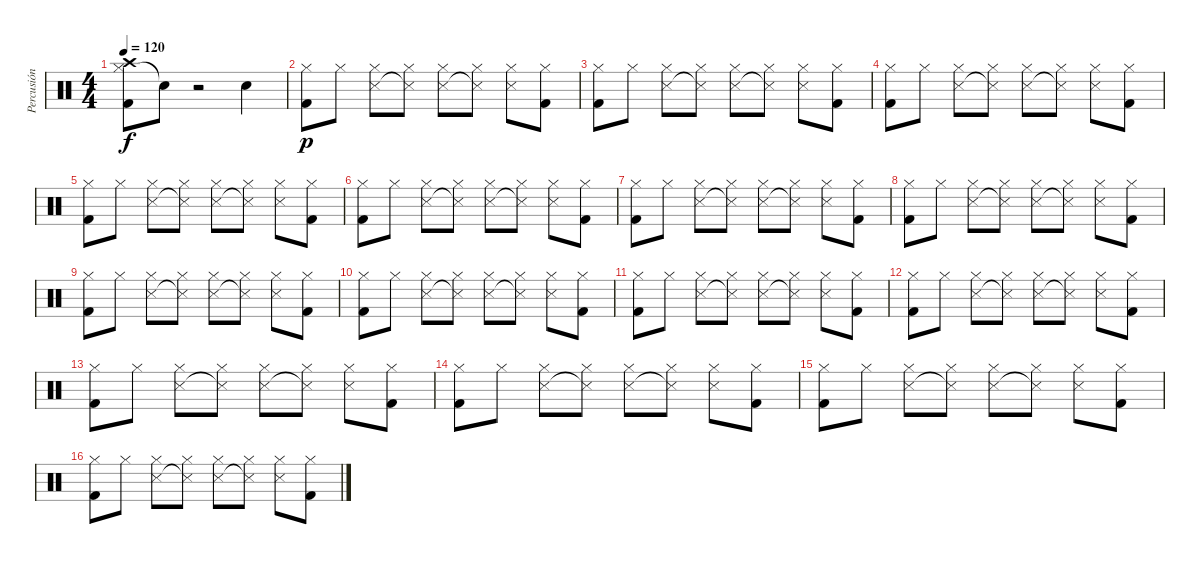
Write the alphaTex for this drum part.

\track ("Percusión" "Percusión") {instrument percussion}
\staff {score}
\articulation defaults
\ts (4 4)
\tempo 120
\clef neutral
\ks c
("Hi-Hat (closed)" "Kick (hit) 2" "Crash high (hit)").8{dy f} "Snare (hit)"{t}.8 r.2 "Electric Snare (hit)".4 |
("Hi-Hat (closed)" "Kick (hit) 2").8{dy p} "Hi-Hat (closed)".8 ("Metronome (hit)" "Hi-Hat (closed)").8 ("Metronome (hit)"{t} "Hi-Hat (closed)").8 ("Metronome (hit)" "Hi-Hat (closed)").8 ("Metronome (hit)"{t} "Hi-Hat (closed)").8 ("Metronome (hit)" "Hi-Hat (closed)").8 ("Hi-Hat (closed)" "Kick (hit) 2").8 |
("Hi-Hat (closed)" "Kick (hit) 2").8 "Hi-Hat (closed)".8 ("Metronome (hit)" "Hi-Hat (closed)").8 ("Metronome (hit)"{t} "Hi-Hat (closed)").8 ("Metronome (hit)" "Hi-Hat (closed)").8 ("Metronome (hit)"{t} "Hi-Hat (closed)").8 ("Metronome (hit)" "Hi-Hat (closed)").8 ("Hi-Hat (closed)" "Kick (hit) 2").8 |
("Hi-Hat (closed)" "Kick (hit) 2").8 "Hi-Hat (closed)".8 ("Metronome (hit)" "Hi-Hat (closed)").8 ("Metronome (hit)"{t} "Hi-Hat (closed)").8 ("Metronome (hit)" "Hi-Hat (closed)").8 ("Metronome (hit)"{t} "Hi-Hat (closed)").8 ("Metronome (hit)" "Hi-Hat (closed)").8 ("Hi-Hat (closed)" "Kick (hit) 2").8 |
("Hi-Hat (closed)" "Kick (hit) 2").8 "Hi-Hat (closed)".8 ("Metronome (hit)" "Hi-Hat (closed)").8 ("Metronome (hit)"{t} "Hi-Hat (closed)").8 ("Metronome (hit)" "Hi-Hat (closed)").8 ("Metronome (hit)"{t} "Hi-Hat (closed)").8 ("Metronome (hit)" "Hi-Hat (closed)").8 ("Hi-Hat (closed)" "Kick (hit) 2").8 |
("Hi-Hat (closed)" "Kick (hit) 2").8 "Hi-Hat (closed)".8 ("Metronome (hit)" "Hi-Hat (closed)").8 ("Metronome (hit)"{t} "Hi-Hat (closed)").8 ("Metronome (hit)" "Hi-Hat (closed)").8 ("Metronome (hit)"{t} "Hi-Hat (closed)").8 ("Metronome (hit)" "Hi-Hat (closed)").8 ("Hi-Hat (closed)" "Kick (hit) 2").8 |
("Hi-Hat (closed)" "Kick (hit) 2").8 "Hi-Hat (closed)".8 ("Metronome (hit)" "Hi-Hat (closed)").8 ("Metronome (hit)"{t} "Hi-Hat (closed)").8 ("Metronome (hit)" "Hi-Hat (closed)").8 ("Metronome (hit)"{t} "Hi-Hat (closed)").8 ("Metronome (hit)" "Hi-Hat (closed)").8 ("Hi-Hat (closed)" "Kick (hit) 2").8 |
("Hi-Hat (closed)" "Kick (hit) 2").8 "Hi-Hat (closed)".8 ("Metronome (hit)" "Hi-Hat (closed)").8 ("Metronome (hit)"{t} "Hi-Hat (closed)").8 ("Metronome (hit)" "Hi-Hat (closed)").8 ("Metronome (hit)"{t} "Hi-Hat (closed)").8 ("Metronome (hit)" "Hi-Hat (closed)").8 ("Hi-Hat (closed)" "Kick (hit) 2").8 |
("Hi-Hat (closed)" "Kick (hit) 2").8 "Hi-Hat (closed)".8 ("Metronome (hit)" "Hi-Hat (closed)").8 ("Metronome (hit)"{t} "Hi-Hat (closed)").8 ("Metronome (hit)" "Hi-Hat (closed)").8 ("Metronome (hit)"{t} "Hi-Hat (closed)").8 ("Metronome (hit)" "Hi-Hat (closed)").8 ("Hi-Hat (closed)" "Kick (hit) 2").8 |
("Hi-Hat (closed)" "Kick (hit) 2").8 "Hi-Hat (closed)".8 ("Metronome (hit)" "Hi-Hat (closed)").8 ("Metronome (hit)"{t} "Hi-Hat (closed)").8 ("Metronome (hit)" "Hi-Hat (closed)").8 ("Metronome (hit)"{t} "Hi-Hat (closed)").8 ("Metronome (hit)" "Hi-Hat (closed)").8 ("Hi-Hat (closed)" "Kick (hit) 2").8 |
("Hi-Hat (closed)" "Kick (hit) 2").8 "Hi-Hat (closed)".8 ("Metronome (hit)" "Hi-Hat (closed)").8 ("Metronome (hit)"{t} "Hi-Hat (closed)").8 ("Metronome (hit)" "Hi-Hat (closed)").8 ("Metronome (hit)"{t} "Hi-Hat (closed)").8 ("Metronome (hit)" "Hi-Hat (closed)").8 ("Hi-Hat (closed)" "Kick (hit) 2").8 |
("Hi-Hat (closed)" "Kick (hit) 2").8 "Hi-Hat (closed)".8 ("Metronome (hit)" "Hi-Hat (closed)").8 ("Metronome (hit)"{t} "Hi-Hat (closed)").8 ("Metronome (hit)" "Hi-Hat (closed)").8 ("Metronome (hit)"{t} "Hi-Hat (closed)").8 ("Metronome (hit)" "Hi-Hat (closed)").8 ("Hi-Hat (closed)" "Kick (hit) 2").8 |
("Hi-Hat (closed)" "Kick (hit) 2").8 "Hi-Hat (closed)".8 ("Metronome (hit)" "Hi-Hat (closed)").8 ("Metronome (hit)"{t} "Hi-Hat (closed)").8 ("Metronome (hit)" "Hi-Hat (closed)").8 ("Metronome (hit)"{t} "Hi-Hat (closed)").8 ("Metronome (hit)" "Hi-Hat (closed)").8 ("Hi-Hat (closed)" "Kick (hit) 2").8 |
("Hi-Hat (closed)" "Kick (hit) 2").8 "Hi-Hat (closed)".8 ("Metronome (hit)" "Hi-Hat (closed)").8 ("Metronome (hit)"{t} "Hi-Hat (closed)").8 ("Metronome (hit)" "Hi-Hat (closed)").8 ("Metronome (hit)"{t} "Hi-Hat (closed)").8 ("Metronome (hit)" "Hi-Hat (closed)").8 ("Hi-Hat (closed)" "Kick (hit) 2").8 |
("Hi-Hat (closed)" "Kick (hit) 2").8 "Hi-Hat (closed)".8 ("Metronome (hit)" "Hi-Hat (closed)").8 ("Metronome (hit)"{t} "Hi-Hat (closed)").8 ("Metronome (hit)" "Hi-Hat (closed)").8 ("Metronome (hit)"{t} "Hi-Hat (closed)").8 ("Metronome (hit)" "Hi-Hat (closed)").8 ("Hi-Hat (closed)" "Kick (hit) 2").8 |
("Hi-Hat (closed)" "Kick (hit) 2").8 "Hi-Hat (closed)".8 ("Metronome (hit)" "Hi-Hat (closed)").8 ("Metronome (hit)"{t} "Hi-Hat (closed)").8 ("Metronome (hit)" "Hi-Hat (closed)").8 ("Metronome (hit)"{t} "Hi-Hat (closed)").8 ("Metronome (hit)" "Hi-Hat (closed)").8 ("Hi-Hat (closed)" "Kick (hit) 2").8
